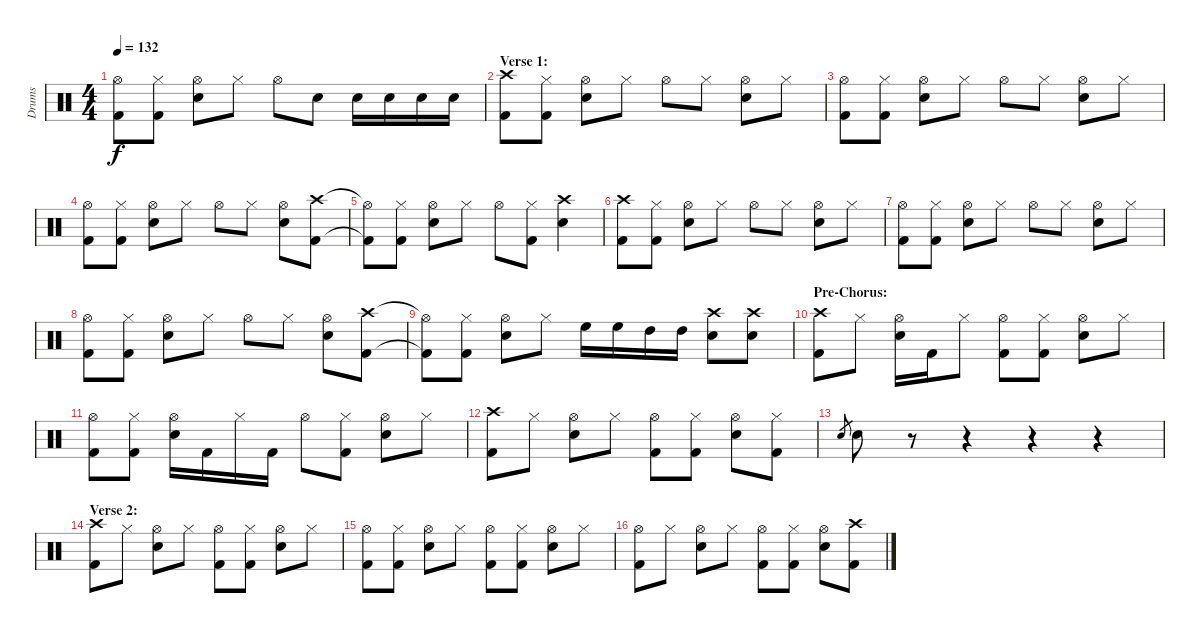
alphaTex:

\track ("Drums" "Drums") {instrument percussion}
\staff {score}
\articulation defaults
\ts (4 4)
\tempo 132
\clef neutral
\ks c
("Hi-Hat (open)"{t} "Kick (hit) 2"{t}).8{dy f} ("Hi-Hat (closed)" "Kick (hit) 2").8 ("Hi-Hat (open)" "Electric Snare (hit)").8 "Hi-Hat (closed)".8 "Hi-Hat (open)".8 "Electric Snare (hit)".8 "Electric Snare (hit)".16 "Electric Snare (hit)".16 "Electric Snare (hit)".16 "Electric Snare (hit)".16 |
\section ("" "Verse 1:")
("Crash high (hit)" "Kick (hit) 2").8 ("Hi-Hat (closed)" "Kick (hit) 2").8 ("Hi-Hat (open)" "Electric Snare (hit)").8 "Hi-Hat (closed)".8 "Hi-Hat (open)".8 "Hi-Hat (closed)".8 ("Hi-Hat (open)" "Electric Snare (hit)").8 "Hi-Hat (closed)".8 |
("Hi-Hat (open)" "Kick (hit) 2").8 ("Hi-Hat (closed)" "Kick (hit) 2").8 ("Hi-Hat (open)" "Electric Snare (hit)").8 "Hi-Hat (closed)".8 "Hi-Hat (open)".8 "Hi-Hat (closed)".8 ("Hi-Hat (open)" "Electric Snare (hit)").8 "Hi-Hat (closed)".8 |
("Hi-Hat (open)" "Kick (hit) 2").8 ("Hi-Hat (closed)" "Kick (hit) 2").8 ("Hi-Hat (open)" "Electric Snare (hit)").8 "Hi-Hat (closed)".8 "Hi-Hat (open)".8 "Hi-Hat (closed)".8 ("Hi-Hat (open)" "Electric Snare (hit)").8 ("Crash high (hit)" "Kick (hit) 2").8 |
("Hi-Hat (open)"{t} "Kick (hit) 2"{t}).8 ("Hi-Hat (closed)" "Kick (hit) 2").8 ("Hi-Hat (open)" "Electric Snare (hit)").8 "Hi-Hat (closed)".8 "Hi-Hat (open)".8 ("Hi-Hat (closed)" "Kick (hit) 2").8 ("Crash high (hit)" "Electric Snare (hit)").4 |
("Crash high (hit)" "Kick (hit) 2").8 ("Hi-Hat (closed)" "Kick (hit) 2").8 ("Hi-Hat (open)" "Electric Snare (hit)").8 "Hi-Hat (closed)".8 "Hi-Hat (open)".8 "Hi-Hat (closed)".8 ("Hi-Hat (open)" "Electric Snare (hit)").8 "Hi-Hat (closed)".8 |
("Hi-Hat (open)" "Kick (hit) 2").8 ("Hi-Hat (closed)" "Kick (hit) 2").8 ("Hi-Hat (open)" "Electric Snare (hit)").8 "Hi-Hat (closed)".8 "Hi-Hat (open)".8 "Hi-Hat (closed)".8 ("Hi-Hat (open)" "Electric Snare (hit)").8 "Hi-Hat (closed)".8 |
("Hi-Hat (open)" "Kick (hit) 2").8 ("Hi-Hat (closed)" "Kick (hit) 2").8 ("Hi-Hat (open)" "Electric Snare (hit)").8 "Hi-Hat (closed)".8 "Hi-Hat (open)".8 "Hi-Hat (closed)".8 ("Hi-Hat (open)" "Electric Snare (hit)").8 ("Crash high (hit)" "Kick (hit) 2").8 |
("Hi-Hat (open)"{t} "Kick (hit) 2"{t}).8 ("Hi-Hat (closed)" "Kick (hit) 2").8 ("Hi-Hat (open)" "Electric Snare (hit)").8 "Hi-Hat (closed)".8 "High Floor Tom (hit)".16 "High Floor Tom (hit)".16 "High Tom (hit)".16 "High Tom (hit)".16 ("Crash high (hit)" "Electric Snare (hit)").8 ("Crash high (hit)" "Electric Snare (hit)").8 |
\section ("" "Pre-Chorus:")
("Crash high (hit)" "Kick (hit) 2").8 "Hi-Hat (closed)".8 ("Hi-Hat (open)" "Electric Snare (hit)").16 "Kick (hit) 2".16 "Hi-Hat (closed)".8 ("Hi-Hat (open)" "Kick (hit) 2").8 ("Hi-Hat (closed)" "Kick (hit) 2").8 ("Hi-Hat (open)" "Electric Snare (hit)").8 "Hi-Hat (closed)".8 |
("Hi-Hat (open)" "Kick (hit) 2").8 ("Hi-Hat (closed)" "Kick (hit) 2").8 ("Hi-Hat (open)" "Electric Snare (hit)").16 "Kick (hit) 2".16 "Hi-Hat (closed)".16 "Kick (hit) 2".16 "Hi-Hat (open)".8 ("Hi-Hat (closed)" "Kick (hit) 2").8 ("Hi-Hat (open)" "Electric Snare (hit)").8 "Hi-Hat (closed)".8 |
("Crash high (hit)" "Kick (hit) 2").8 "Hi-Hat (closed)".8 ("Hi-Hat (open)" "Electric Snare (hit)").8 "Hi-Hat (closed)".8 ("Hi-Hat (open)" "Kick (hit) 2").8 ("Hi-Hat (closed)" "Kick (hit) 2").8 ("Hi-Hat (open)" "Electric Snare (hit)").8 ("Hi-Hat (closed)" "Kick (hit) 2").8 |
"Electric Snare (hit)".8{gr} "Electric Snare (hit)".8 r.8 r.4 r.4 r.4 |
\section ("" "Verse 2:")
("Crash high (hit)" "Kick (hit) 2").8 "Hi-Hat (closed)".8 ("Hi-Hat (open)" "Electric Snare (hit)").8 "Hi-Hat (closed)".8 ("Hi-Hat (open)" "Kick (hit) 2").8 ("Hi-Hat (closed)" "Kick (hit) 2").8 ("Hi-Hat (open)" "Electric Snare (hit)").8 "Hi-Hat (closed)".8 |
("Hi-Hat (open)" "Kick (hit) 2").8 ("Hi-Hat (closed)" "Kick (hit) 2").8 ("Hi-Hat (open)" "Electric Snare (hit)").8 "Hi-Hat (closed)".8 ("Hi-Hat (open)" "Kick (hit) 2").8 ("Hi-Hat (closed)" "Kick (hit) 2").8 ("Hi-Hat (open)" "Electric Snare (hit)").8 "Hi-Hat (closed)".8 |
("Hi-Hat (open)" "Kick (hit) 2").8 "Hi-Hat (closed)".8 ("Hi-Hat (open)" "Electric Snare (hit)").8 "Hi-Hat (closed)".8 ("Hi-Hat (open)" "Kick (hit) 2").8 ("Hi-Hat (closed)" "Kick (hit) 2").8 ("Hi-Hat (open)" "Electric Snare (hit)").8 ("Crash high (hit)" "Kick (hit) 2").8
